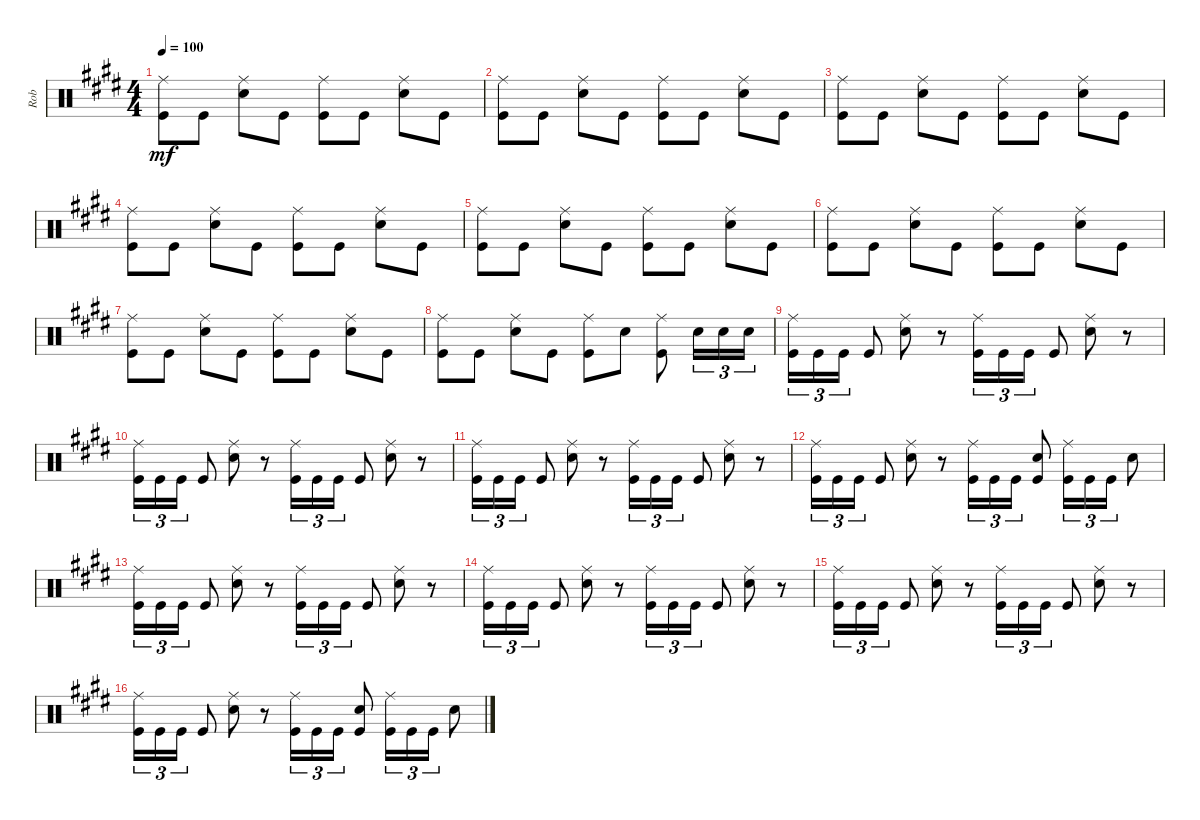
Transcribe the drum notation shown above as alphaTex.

\track ("Rob" "Rob") {instrument percussion}
\staff {score}
\articulation defaults
\ts (4 4)
\tempo 100
\clef neutral
\ks e
("Kick (hit)" "Ride (middle)").8{dy mf} "Kick (hit)".8 ("Snare (hit) 2" "Ride (middle)").8 "Kick (hit)".8 ("Kick (hit)" "Ride (middle)").8 "Kick (hit)".8 ("Snare (hit) 2" "Ride (middle)").8 "Kick (hit)".8 |
("Kick (hit)" "Ride (middle)").8 "Kick (hit)".8 ("Snare (hit) 2" "Ride (middle)").8 "Kick (hit)".8 ("Kick (hit)" "Ride (middle)").8 "Kick (hit)".8 ("Snare (hit) 2" "Ride (middle)").8 "Kick (hit)".8 |
("Kick (hit)" "Ride (middle)").8 "Kick (hit)".8 ("Snare (hit) 2" "Ride (middle)").8 "Kick (hit)".8 ("Kick (hit)" "Ride (middle)").8 "Kick (hit)".8 ("Snare (hit) 2" "Ride (middle)").8 "Kick (hit)".8 |
("Kick (hit)" "Ride (middle)").8 "Kick (hit)".8 ("Snare (hit) 2" "Ride (middle)").8 "Kick (hit)".8 ("Kick (hit)" "Ride (middle)").8 "Kick (hit)".8 ("Snare (hit) 2" "Ride (middle)").8 "Kick (hit)".8 |
("Kick (hit)" "Ride (middle)").8 "Kick (hit)".8 ("Snare (hit) 2" "Ride (middle)").8 "Kick (hit)".8 ("Kick (hit)" "Ride (middle)").8 "Kick (hit)".8 ("Snare (hit) 2" "Ride (middle)").8 "Kick (hit)".8 |
("Kick (hit)" "Ride (middle)").8 "Kick (hit)".8 ("Snare (hit) 2" "Ride (middle)").8 "Kick (hit)".8 ("Kick (hit)" "Ride (middle)").8 "Kick (hit)".8 ("Snare (hit) 2" "Ride (middle)").8 "Kick (hit)".8 |
("Kick (hit)" "Ride (middle)").8 "Kick (hit)".8 ("Snare (hit) 2" "Ride (middle)").8 "Kick (hit)".8 ("Kick (hit)" "Ride (middle)").8 "Kick (hit)".8 ("Snare (hit) 2" "Ride (middle)").8 "Kick (hit)".8 |
("Kick (hit)" "Ride (middle)").8 "Kick (hit)".8 ("Snare (hit) 2" "Ride (middle)").8 "Kick (hit)".8 ("Kick (hit)" "Ride (middle)").8 "Snare (hit) 2".8 ("Ride (middle)" "Kick (hit)").8 "Snare (hit) 2".16{tu (3 2)} "Snare (hit) 2".16{tu (3 2)} "Snare (hit) 2".16{tu (3 2)} |
("Kick (hit)" "Ride (middle)").16{tu (3 2)} "Kick (hit)".16{tu (3 2)} "Kick (hit)".16{tu (3 2)} "Kick (hit)".8 ("Ride (middle)" "Snare (hit) 2").8 r.8 ("Kick (hit)" "Ride (middle)").16{tu (3 2)} "Kick (hit)".16{tu (3 2)} "Kick (hit)".16{tu (3 2)} "Kick (hit)".8 ("Ride (middle)" "Snare (hit) 2").8 r.8 |
("Kick (hit)" "Ride (middle)").16{tu (3 2)} "Kick (hit)".16{tu (3 2)} "Kick (hit)".16{tu (3 2)} "Kick (hit)".8 ("Ride (middle)" "Snare (hit) 2").8 r.8 ("Kick (hit)" "Ride (middle)").16{tu (3 2)} "Kick (hit)".16{tu (3 2)} "Kick (hit)".16{tu (3 2)} "Kick (hit)".8 ("Ride (middle)" "Snare (hit) 2").8 r.8 |
("Kick (hit)" "Ride (middle)").16{tu (3 2)} "Kick (hit)".16{tu (3 2)} "Kick (hit)".16{tu (3 2)} "Kick (hit)".8 ("Ride (middle)" "Snare (hit) 2").8 r.8 ("Kick (hit)" "Ride (middle)").16{tu (3 2)} "Kick (hit)".16{tu (3 2)} "Kick (hit)".16{tu (3 2)} "Kick (hit)".8 ("Ride (middle)" "Snare (hit) 2").8 r.8 |
("Kick (hit)" "Ride (middle)").16{tu (3 2)} "Kick (hit)".16{tu (3 2)} "Kick (hit)".16{tu (3 2)} "Kick (hit)".8 ("Ride (middle)" "Snare (hit) 2").8 r.8 ("Kick (hit)" "Ride (middle)").16{tu (3 2)} "Kick (hit)".16{tu (3 2)} "Kick (hit)".16{tu (3 2)} ("Kick (hit)" "Snare (hit) 2").8 ("Ride (middle)" "Kick (hit)").16{tu (3 2)} "Kick (hit)".16{tu (3 2)} "Kick (hit)".16{tu (3 2)} "Snare (hit) 2".8 |
("Kick (hit)" "Ride (middle)").16{tu (3 2)} "Kick (hit)".16{tu (3 2)} "Kick (hit)".16{tu (3 2)} "Kick (hit)".8 ("Ride (middle)" "Snare (hit) 2").8 r.8 ("Kick (hit)" "Ride (middle)").16{tu (3 2)} "Kick (hit)".16{tu (3 2)} "Kick (hit)".16{tu (3 2)} "Kick (hit)".8 ("Ride (middle)" "Snare (hit) 2").8 r.8 |
("Kick (hit)" "Ride (middle)").16{tu (3 2)} "Kick (hit)".16{tu (3 2)} "Kick (hit)".16{tu (3 2)} "Kick (hit)".8 ("Ride (middle)" "Snare (hit) 2").8 r.8 ("Kick (hit)" "Ride (middle)").16{tu (3 2)} "Kick (hit)".16{tu (3 2)} "Kick (hit)".16{tu (3 2)} "Kick (hit)".8 ("Ride (middle)" "Snare (hit) 2").8 r.8 |
("Kick (hit)" "Ride (middle)").16{tu (3 2)} "Kick (hit)".16{tu (3 2)} "Kick (hit)".16{tu (3 2)} "Kick (hit)".8 ("Ride (middle)" "Snare (hit) 2").8 r.8 ("Kick (hit)" "Ride (middle)").16{tu (3 2)} "Kick (hit)".16{tu (3 2)} "Kick (hit)".16{tu (3 2)} "Kick (hit)".8 ("Ride (middle)" "Snare (hit) 2").8 r.8 |
("Kick (hit)" "Ride (middle)").16{tu (3 2)} "Kick (hit)".16{tu (3 2)} "Kick (hit)".16{tu (3 2)} "Kick (hit)".8 ("Ride (middle)" "Snare (hit) 2").8 r.8 ("Kick (hit)" "Ride (middle)").16{tu (3 2)} "Kick (hit)".16{tu (3 2)} "Kick (hit)".16{tu (3 2)} ("Kick (hit)" "Snare (hit) 2").8 ("Ride (middle)" "Kick (hit)").16{tu (3 2)} "Kick (hit)".16{tu (3 2)} "Kick (hit)".16{tu (3 2)} "Snare (hit) 2".8
